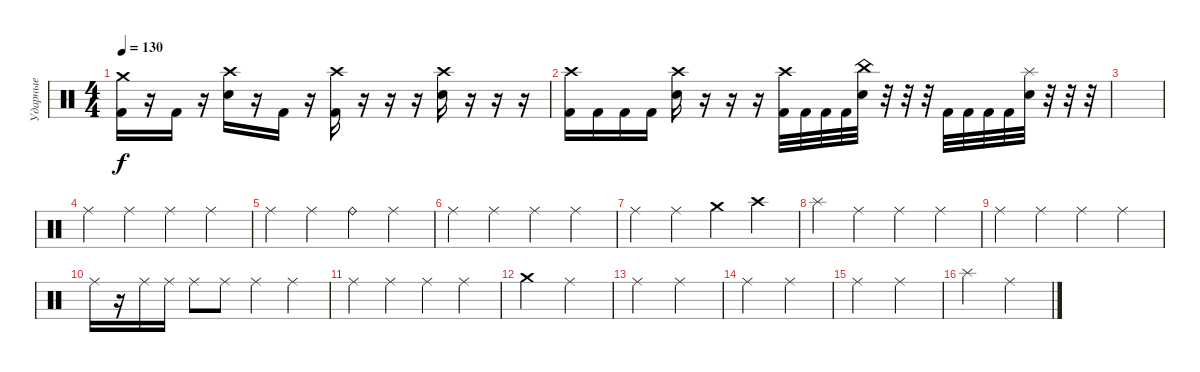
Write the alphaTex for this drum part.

\track ("Ударные" "Ударные") {instrument percussion}
\staff {score}
\articulation defaults
\ts (4 4)
\tempo 130
\clef neutral
\ks c
("Kick (hit) 2" "Crash medium (hit)").16{dy f} r.16 "Kick (hit) 2".16 r.16 ("Electric Snare (hit)" "Crash high (hit)").16 r.16 "Kick (hit) 2".16 r.16 ("Kick (hit) 2" "Crash high (hit)").16 r.16 r.16 r.16 ("Electric Snare (hit)" "Crash high (hit)").16 r.16 r.16 r.16 |
("Kick (hit) 2" "Crash high (hit)").16 "Kick (hit) 2".16 "Kick (hit) 2".16 "Kick (hit) 2".16 ("Electric Snare (hit)" "Crash high (hit)").16 r.16 r.16 r.16 ("Kick (hit) 2" "Crash high (hit)").32 "Kick (hit) 2".32 "Kick (hit) 2".32 "Kick (hit) 2".32 ("Electric Snare (hit)" "China (hit)").32 r.32 r.32 r.32 "Kick (hit) 2".32 "Kick (hit) 2".32 "Kick (hit) 2".32 "Kick (hit) 2".32 ("Electric Snare (hit)" "Splash (hit)").32 r.32 r.32 r.32 |
|
"Ride (middle)".4 "Ride (middle)".4 "Ride (middle)".4 "Ride (middle)".4 |
"Ride (middle)".4 "Ride (middle)".4 "Ride (bell)".4 "Ride (middle)".4 |
"Ride (middle)".4 "Ride (middle)".4 "Ride (middle)".4 "Ride (middle)".4 |
"Ride (middle)".4 "Ride (middle)".4 "Crash medium (hit)".4 "Crash high (hit)".4 |
"Splash (hit)".4 "Ride (middle)".4 "Ride (middle)".4 "Ride (middle)".4 |
"Ride (middle)".4 "Ride (middle)".4 "Ride (middle)".4 "Ride (middle)".4 |
"Ride (middle)".16 r.16 "Ride (middle)".16 "Ride (middle)".16 "Ride (middle)".8 "Ride (middle)".8 "Ride (middle)".4 "Ride (middle)".4 |
"Ride (middle)".4 "Ride (middle)".4 "Ride (middle)".4 "Ride (middle)".4 |
"Crash medium (hit)".2 "Ride (middle)".2 |
"Ride (middle)".2 "Ride (middle)".2 |
"Ride (middle)".2 "Ride (middle)".2 |
"Ride (middle)".2 "Ride (middle)".2 |
"Splash (hit)".2 "Ride (middle)".2
